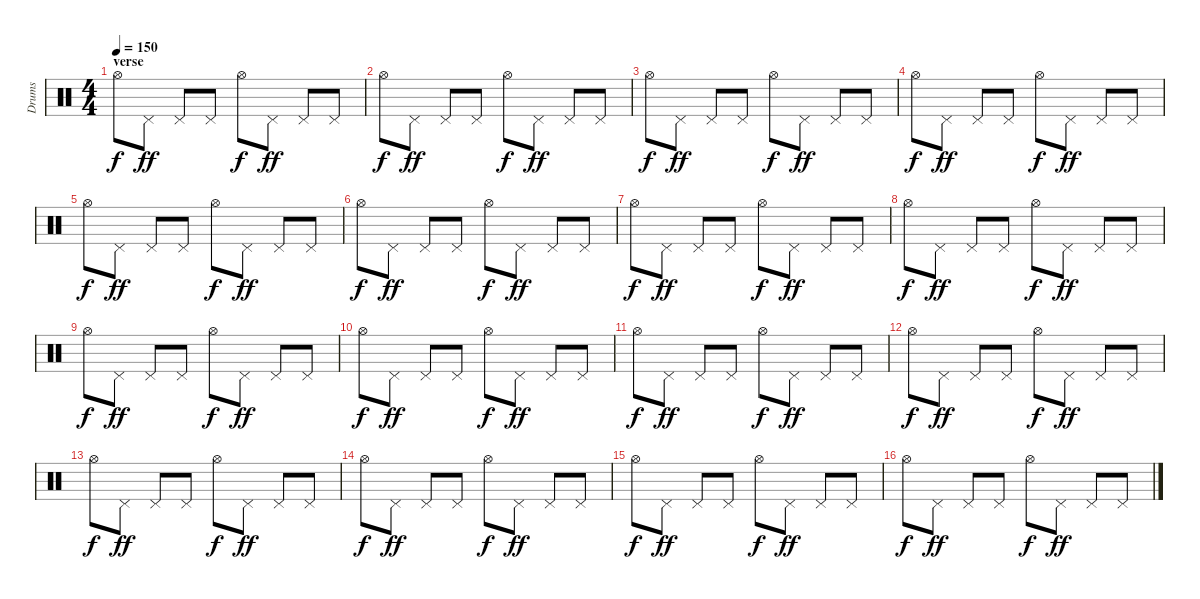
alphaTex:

\track ("Drums" "Drums") {instrument percussion}
\staff {score}
\articulation defaults
\ts (4 4)
\section ("" "verse")
\tempo 150
\clef neutral
\ks c "Hi-Hat (open)".8{dy f} "Pedal Hi-Hat (hit)".8{dy ff} "Pedal Hi-Hat (hit)".8 "Pedal Hi-Hat (hit)".8 "Hi-Hat (open)".8{dy f} "Pedal Hi-Hat (hit)".8{dy ff} "Pedal Hi-Hat (hit)".8 "Pedal Hi-Hat (hit)".8
|
"Hi-Hat (open)".8{dy f} "Pedal Hi-Hat (hit)".8{dy ff} "Pedal Hi-Hat (hit)".8 "Pedal Hi-Hat (hit)".8 "Hi-Hat (open)".8{dy f} "Pedal Hi-Hat (hit)".8{dy ff} "Pedal Hi-Hat (hit)".8 "Pedal Hi-Hat (hit)".8 |
"Hi-Hat (open)".8{dy f} "Pedal Hi-Hat (hit)".8{dy ff} "Pedal Hi-Hat (hit)".8 "Pedal Hi-Hat (hit)".8 "Hi-Hat (open)".8{dy f} "Pedal Hi-Hat (hit)".8{dy ff} "Pedal Hi-Hat (hit)".8 "Pedal Hi-Hat (hit)".8 |
"Hi-Hat (open)".8{dy f} "Pedal Hi-Hat (hit)".8{dy ff} "Pedal Hi-Hat (hit)".8 "Pedal Hi-Hat (hit)".8 "Hi-Hat (open)".8{dy f} "Pedal Hi-Hat (hit)".8{dy ff} "Pedal Hi-Hat (hit)".8 "Pedal Hi-Hat (hit)".8 |
"Hi-Hat (open)".8{dy f} "Pedal Hi-Hat (hit)".8{dy ff} "Pedal Hi-Hat (hit)".8 "Pedal Hi-Hat (hit)".8 "Hi-Hat (open)".8{dy f} "Pedal Hi-Hat (hit)".8{dy ff} "Pedal Hi-Hat (hit)".8 "Pedal Hi-Hat (hit)".8 |
"Hi-Hat (open)".8{dy f} "Pedal Hi-Hat (hit)".8{dy ff} "Pedal Hi-Hat (hit)".8 "Pedal Hi-Hat (hit)".8 "Hi-Hat (open)".8{dy f} "Pedal Hi-Hat (hit)".8{dy ff} "Pedal Hi-Hat (hit)".8 "Pedal Hi-Hat (hit)".8 |
"Hi-Hat (open)".8{dy f} "Pedal Hi-Hat (hit)".8{dy ff} "Pedal Hi-Hat (hit)".8 "Pedal Hi-Hat (hit)".8 "Hi-Hat (open)".8{dy f} "Pedal Hi-Hat (hit)".8{dy ff} "Pedal Hi-Hat (hit)".8 "Pedal Hi-Hat (hit)".8 |
"Hi-Hat (open)".8{dy f} "Pedal Hi-Hat (hit)".8{dy ff} "Pedal Hi-Hat (hit)".8 "Pedal Hi-Hat (hit)".8 "Hi-Hat (open)".8{dy f} "Pedal Hi-Hat (hit)".8{dy ff} "Pedal Hi-Hat (hit)".8 "Pedal Hi-Hat (hit)".8 |
"Hi-Hat (open)".8{dy f} "Pedal Hi-Hat (hit)".8{dy ff} "Pedal Hi-Hat (hit)".8 "Pedal Hi-Hat (hit)".8 "Hi-Hat (open)".8{dy f} "Pedal Hi-Hat (hit)".8{dy ff} "Pedal Hi-Hat (hit)".8 "Pedal Hi-Hat (hit)".8 |
"Hi-Hat (open)".8{dy f} "Pedal Hi-Hat (hit)".8{dy ff} "Pedal Hi-Hat (hit)".8 "Pedal Hi-Hat (hit)".8 "Hi-Hat (open)".8{dy f} "Pedal Hi-Hat (hit)".8{dy ff} "Pedal Hi-Hat (hit)".8 "Pedal Hi-Hat (hit)".8 |
"Hi-Hat (open)".8{dy f} "Pedal Hi-Hat (hit)".8{dy ff} "Pedal Hi-Hat (hit)".8 "Pedal Hi-Hat (hit)".8 "Hi-Hat (open)".8{dy f} "Pedal Hi-Hat (hit)".8{dy ff} "Pedal Hi-Hat (hit)".8 "Pedal Hi-Hat (hit)".8 |
"Hi-Hat (open)".8{dy f} "Pedal Hi-Hat (hit)".8{dy ff} "Pedal Hi-Hat (hit)".8 "Pedal Hi-Hat (hit)".8 "Hi-Hat (open)".8{dy f} "Pedal Hi-Hat (hit)".8{dy ff} "Pedal Hi-Hat (hit)".8 "Pedal Hi-Hat (hit)".8 |
"Hi-Hat (open)".8{dy f} "Pedal Hi-Hat (hit)".8{dy ff} "Pedal Hi-Hat (hit)".8 "Pedal Hi-Hat (hit)".8 "Hi-Hat (open)".8{dy f} "Pedal Hi-Hat (hit)".8{dy ff} "Pedal Hi-Hat (hit)".8 "Pedal Hi-Hat (hit)".8 |
"Hi-Hat (open)".8{dy f} "Pedal Hi-Hat (hit)".8{dy ff} "Pedal Hi-Hat (hit)".8 "Pedal Hi-Hat (hit)".8 "Hi-Hat (open)".8{dy f} "Pedal Hi-Hat (hit)".8{dy ff} "Pedal Hi-Hat (hit)".8 "Pedal Hi-Hat (hit)".8 |
"Hi-Hat (open)".8{dy f} "Pedal Hi-Hat (hit)".8{dy ff} "Pedal Hi-Hat (hit)".8 "Pedal Hi-Hat (hit)".8 "Hi-Hat (open)".8{dy f} "Pedal Hi-Hat (hit)".8{dy ff} "Pedal Hi-Hat (hit)".8 "Pedal Hi-Hat (hit)".8 |
"Hi-Hat (open)".8{dy f} "Pedal Hi-Hat (hit)".8{dy ff} "Pedal Hi-Hat (hit)".8 "Pedal Hi-Hat (hit)".8 "Hi-Hat (open)".8{dy f} "Pedal Hi-Hat (hit)".8{dy ff} "Pedal Hi-Hat (hit)".8 "Pedal Hi-Hat (hit)".8
